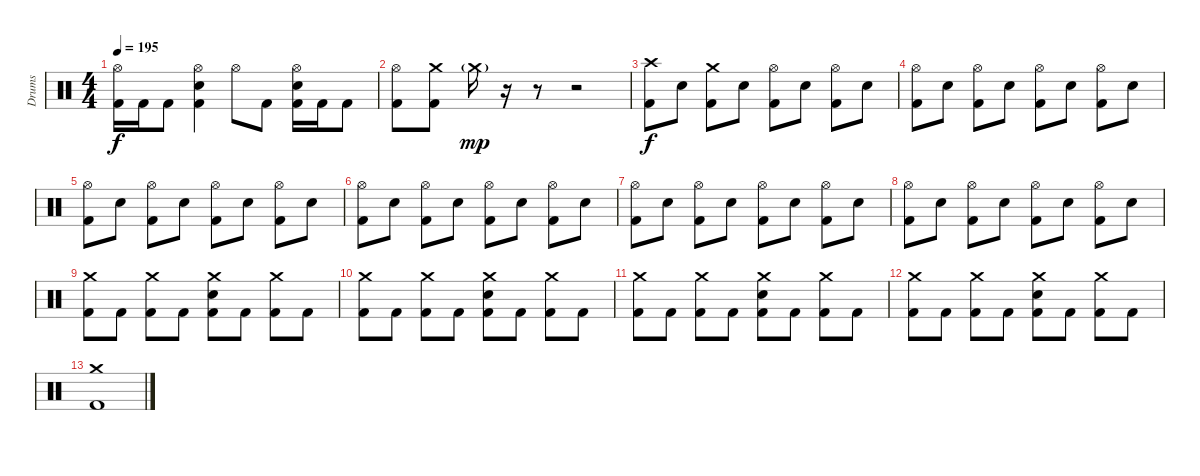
\track ("Drums" "Drums") {instrument percussion}
\staff {score}
\articulation defaults
\ts (4 4)
\tempo 195
\clef neutral
\ks c
("Hi-Hat (open)" "Kick (hit) 2").16{dy f} "Kick (hit) 2".16 "Kick (hit) 2".8 ("Hi-Hat (open)" "Electric Snare (hit)" "Kick (hit) 2").4 "Hi-Hat (open)".8 "Kick (hit) 2".8 ("Hi-Hat (open)" "Electric Snare (hit)" "Kick (hit) 2").16 "Kick (hit) 2".16 "Kick (hit) 2".8 |
("Hi-Hat (open)" "Kick (hit) 2").8 ("Crash medium (hit)" "Kick (hit) 2").8 "Crash medium (hit)"{g}.16{dy mp} r.16 r.8 r.2 |
("Crash high (hit)" "Kick (hit) 2").8{dy f} "Electric Snare (hit)".8 ("Crash medium (hit)" "Kick (hit) 2").8 "Electric Snare (hit)".8 ("Hi-Hat (open)" "Kick (hit) 2").8 "Electric Snare (hit)".8 ("Hi-Hat (open)" "Kick (hit) 2").8 "Electric Snare (hit)".8 |
("Hi-Hat (open)" "Kick (hit) 2").8 "Electric Snare (hit)".8 ("Hi-Hat (open)" "Kick (hit) 2").8 "Electric Snare (hit)".8 ("Hi-Hat (open)" "Kick (hit) 2").8 "Electric Snare (hit)".8 ("Hi-Hat (open)" "Kick (hit) 2").8 "Electric Snare (hit)".8 |
("Hi-Hat (open)" "Kick (hit) 2").8 "Electric Snare (hit)".8 ("Hi-Hat (open)" "Kick (hit) 2").8 "Electric Snare (hit)".8 ("Hi-Hat (open)" "Kick (hit) 2").8 "Electric Snare (hit)".8 ("Hi-Hat (open)" "Kick (hit) 2").8 "Electric Snare (hit)".8 |
("Hi-Hat (open)" "Kick (hit) 2").8 "Electric Snare (hit)".8 ("Hi-Hat (open)" "Kick (hit) 2").8 "Electric Snare (hit)".8 ("Hi-Hat (open)" "Kick (hit) 2").8 "Electric Snare (hit)".8 ("Hi-Hat (open)" "Kick (hit) 2").8 "Electric Snare (hit)".8 |
("Hi-Hat (open)" "Kick (hit) 2").8 "Electric Snare (hit)".8 ("Hi-Hat (open)" "Kick (hit) 2").8 "Electric Snare (hit)".8 ("Hi-Hat (open)" "Kick (hit) 2").8 "Electric Snare (hit)".8 ("Hi-Hat (open)" "Kick (hit) 2").8 "Electric Snare (hit)".8 |
("Hi-Hat (open)" "Kick (hit) 2").8 "Electric Snare (hit)".8 ("Hi-Hat (open)" "Kick (hit) 2").8 "Electric Snare (hit)".8 ("Hi-Hat (open)" "Kick (hit) 2").8 "Electric Snare (hit)".8 ("Hi-Hat (open)" "Kick (hit) 2").8 "Electric Snare (hit)".8 |
("Crash medium (hit)" "Kick (hit) 2").8 "Kick (hit) 2".8 ("Crash medium (hit)" "Kick (hit) 2").8 "Kick (hit) 2".8 ("Crash medium (hit)" "Electric Snare (hit)" "Kick (hit) 2").8 "Kick (hit) 2".8 ("Crash medium (hit)" "Kick (hit) 2").8 "Kick (hit) 2".8 |
("Crash medium (hit)" "Kick (hit) 2").8 "Kick (hit) 2".8 ("Crash medium (hit)" "Kick (hit) 2").8 "Kick (hit) 2".8 ("Crash medium (hit)" "Electric Snare (hit)" "Kick (hit) 2").8 "Kick (hit) 2".8 ("Crash medium (hit)" "Kick (hit) 2").8 "Kick (hit) 2".8 |
("Crash medium (hit)" "Kick (hit) 2").8 "Kick (hit) 2".8 ("Crash medium (hit)" "Kick (hit) 2").8 "Kick (hit) 2".8 ("Crash medium (hit)" "Electric Snare (hit)" "Kick (hit) 2").8 "Kick (hit) 2".8 ("Crash medium (hit)" "Kick (hit) 2").8 "Kick (hit) 2".8 |
("Crash medium (hit)" "Kick (hit) 2").8 "Kick (hit) 2".8 ("Crash medium (hit)" "Kick (hit) 2").8 "Kick (hit) 2".8 ("Crash medium (hit)" "Electric Snare (hit)" "Kick (hit) 2").8 "Kick (hit) 2".8 ("Crash medium (hit)" "Kick (hit) 2").8 "Kick (hit) 2".8 |
("Crash medium (hit)" "Kick (hit) 2").1{volume 0}
